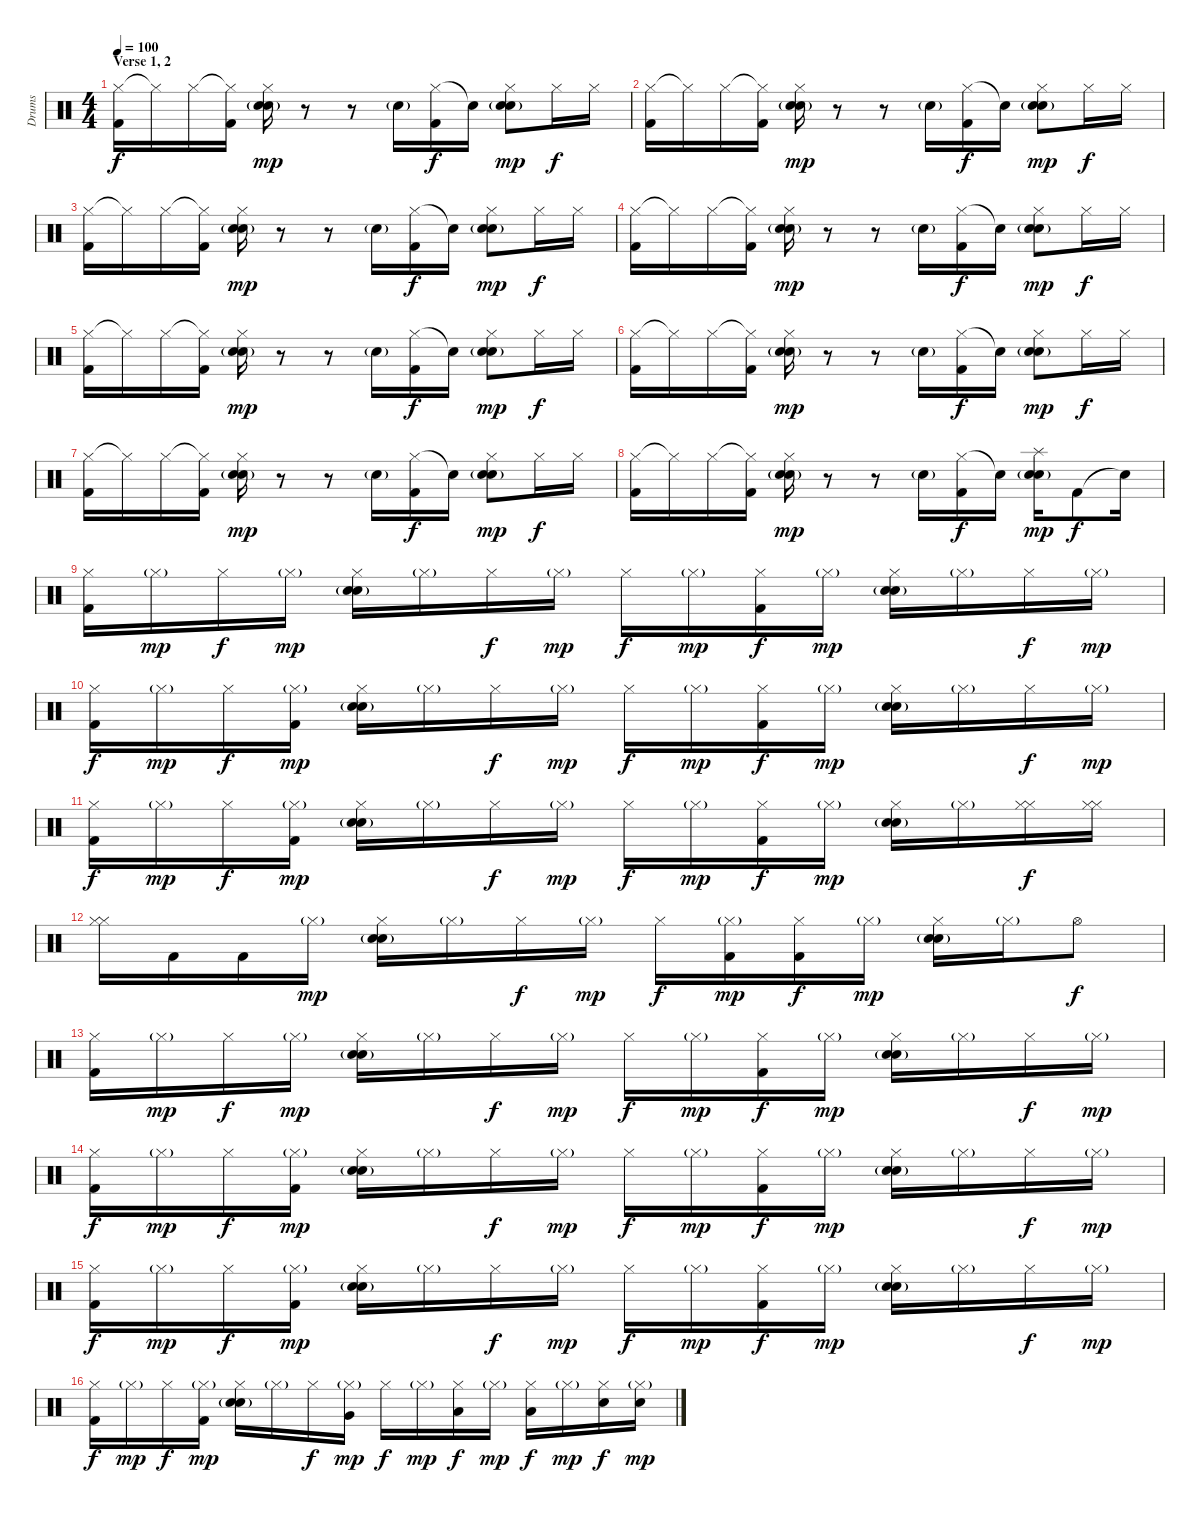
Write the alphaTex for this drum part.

\track ("Drums" "Drums") {instrument percussion}
\staff {score}
\articulation defaults
\ts (4 4)
\section ("" "Verse 1, 2")
\tempo 100
\clef neutral
\ks c
("Hi-Hat (closed)" "Kick (hit) 2").16{dy f} "Hi-Hat (closed)"{t}.16 "Hi-Hat (closed)".16 ("Hi-Hat (closed)"{t} "Kick (hit) 2").16 ("Hi-Hat (closed)" "Snare (hit) 2"{g} "Electric Snare (hit)").16{dy mp} r.8 r.8 "Electric Snare (hit)"{g}.16 ("Hi-Hat (closed)" "Kick (hit) 2").16{dy f} "Snare (hit)"{t}.16 ("Hi-Hat (closed)" "Snare (hit) 2"{g} "Electric Snare (hit)").8{dy mp} "Hi-Hat (closed)".16{dy f} "Hi-Hat (closed)".16 |
("Hi-Hat (closed)" "Kick (hit) 2").16 "Hi-Hat (closed)"{t}.16 "Hi-Hat (closed)".16 ("Hi-Hat (closed)"{t} "Kick (hit) 2").16 ("Hi-Hat (closed)" "Snare (hit) 2"{g} "Electric Snare (hit)").16{dy mp} r.8 r.8 "Electric Snare (hit)"{g}.16 ("Hi-Hat (closed)" "Kick (hit) 2").16{dy f} "Snare (hit)"{t}.16 ("Hi-Hat (closed)" "Snare (hit) 2"{g} "Electric Snare (hit)").8{dy mp} "Hi-Hat (closed)".16{dy f} "Hi-Hat (closed)".16 |
("Hi-Hat (closed)" "Kick (hit) 2").16 "Hi-Hat (closed)"{t}.16 "Hi-Hat (closed)".16 ("Hi-Hat (closed)"{t} "Kick (hit) 2").16 ("Hi-Hat (closed)" "Snare (hit) 2"{g} "Electric Snare (hit)").16{dy mp} r.8 r.8 "Electric Snare (hit)"{g}.16 ("Hi-Hat (closed)" "Kick (hit) 2").16{dy f} "Snare (hit)"{t}.16 ("Hi-Hat (closed)" "Snare (hit) 2"{g} "Electric Snare (hit)").8{dy mp} "Hi-Hat (closed)".16{dy f} "Hi-Hat (closed)".16 |
("Hi-Hat (closed)" "Kick (hit) 2").16 "Hi-Hat (closed)"{t}.16 "Hi-Hat (closed)".16 ("Hi-Hat (closed)"{t} "Kick (hit) 2").16 ("Hi-Hat (closed)" "Snare (hit) 2"{g} "Electric Snare (hit)").16{dy mp} r.8 r.8 "Electric Snare (hit)"{g}.16 ("Hi-Hat (closed)" "Kick (hit) 2").16{dy f} "Snare (hit)"{t}.16 ("Hi-Hat (closed)" "Snare (hit) 2"{g} "Electric Snare (hit)").8{dy mp} "Hi-Hat (closed)".16{dy f} "Hi-Hat (closed)".16 |
("Hi-Hat (closed)" "Kick (hit) 2").16 "Hi-Hat (closed)"{t}.16 "Hi-Hat (closed)".16 ("Hi-Hat (closed)"{t} "Kick (hit) 2").16 ("Hi-Hat (closed)" "Snare (hit) 2"{g} "Electric Snare (hit)").16{dy mp} r.8 r.8 "Electric Snare (hit)"{g}.16 ("Hi-Hat (closed)" "Kick (hit) 2").16{dy f} "Snare (hit)"{t}.16 ("Hi-Hat (closed)" "Snare (hit) 2"{g} "Electric Snare (hit)").8{dy mp} "Hi-Hat (closed)".16{dy f} "Hi-Hat (closed)".16 |
("Hi-Hat (closed)" "Kick (hit) 2").16 "Hi-Hat (closed)"{t}.16 "Hi-Hat (closed)".16 ("Hi-Hat (closed)"{t} "Kick (hit) 2").16 ("Hi-Hat (closed)" "Snare (hit) 2"{g} "Electric Snare (hit)").16{dy mp} r.8 r.8 "Electric Snare (hit)"{g}.16 ("Hi-Hat (closed)" "Kick (hit) 2").16{dy f} "Snare (hit)"{t}.16 ("Hi-Hat (closed)" "Snare (hit) 2"{g} "Electric Snare (hit)").8{dy mp} "Hi-Hat (closed)".16{dy f} "Hi-Hat (closed)".16 |
("Hi-Hat (closed)" "Kick (hit) 2").16 "Hi-Hat (closed)"{t}.16 "Hi-Hat (closed)".16 ("Hi-Hat (closed)"{t} "Kick (hit) 2").16 ("Hi-Hat (closed)" "Snare (hit) 2"{g} "Electric Snare (hit)").16{dy mp} r.8 r.8 "Electric Snare (hit)"{g}.16 ("Hi-Hat (closed)" "Kick (hit) 2").16{dy f} "Snare (hit)"{t}.16 ("Hi-Hat (closed)" "Snare (hit) 2"{g} "Electric Snare (hit)").8{dy mp} "Hi-Hat (closed)".16{dy f} "Hi-Hat (closed)".16 |
("Hi-Hat (closed)" "Kick (hit) 2").16 "Hi-Hat (closed)"{t}.16 "Hi-Hat (closed)".16 ("Hi-Hat (closed)"{t} "Kick (hit) 2").16 ("Hi-Hat (closed)" "Snare (hit) 2"{g} "Electric Snare (hit)").16{dy mp} r.8 r.8 "Electric Snare (hit)"{g}.16 ("Hi-Hat (closed)" "Kick (hit) 2").16{dy f} "Snare (hit)"{t}.16 ("Splash (hit)" "Snare (hit) 2"{g} "Electric Snare (hit)").16{dy mp} "Kick (hit) 2".8{dy f} "Snare (hit)"{t}.16 |
("Hi-Hat (closed)" "Kick (hit) 2").16 "Hi-Hat (closed)"{g}.16{dy mp} "Hi-Hat (closed)".16{dy f} "Hi-Hat (closed)"{g}.16{dy mp} ("Hi-Hat (closed)" "Snare (hit) 2"{g} "Electric Snare (hit)").16 "Hi-Hat (closed)"{g}.16 "Hi-Hat (closed)".16{dy f} "Hi-Hat (closed)"{g}.16{dy mp} "Hi-Hat (closed)".16{dy f} "Hi-Hat (closed)"{g}.16{dy mp} ("Hi-Hat (closed)" "Kick (hit) 2").16{dy f} "Hi-Hat (closed)"{g}.16{dy mp} ("Hi-Hat (closed)" "Snare (hit) 2"{g} "Electric Snare (hit)").16 "Hi-Hat (closed)"{g}.16 "Hi-Hat (closed)".16{dy f} "Hi-Hat (closed)"{g}.16{dy mp} |
("Hi-Hat (closed)" "Kick (hit) 2").16{dy f} "Hi-Hat (closed)"{g}.16{dy mp} "Hi-Hat (closed)".16{dy f} ("Hi-Hat (closed)"{g} "Kick (hit) 2").16{dy mp} ("Hi-Hat (closed)" "Snare (hit) 2"{g} "Electric Snare (hit)").16 "Hi-Hat (closed)"{g}.16 "Hi-Hat (closed)".16{dy f} "Hi-Hat (closed)"{g}.16{dy mp} "Hi-Hat (closed)".16{dy f} "Hi-Hat (closed)"{g}.16{dy mp} ("Hi-Hat (closed)" "Kick (hit) 2").16{dy f} "Hi-Hat (closed)"{g}.16{dy mp} ("Hi-Hat (closed)" "Snare (hit) 2"{g} "Electric Snare (hit)").16 "Hi-Hat (closed)"{g}.16 "Hi-Hat (closed)".16{dy f} "Hi-Hat (closed)"{g}.16{dy mp} |
("Hi-Hat (closed)" "Kick (hit) 2").16{dy f} "Hi-Hat (closed)"{g}.16{dy mp} "Hi-Hat (closed)".16{dy f} ("Hi-Hat (closed)"{g} "Kick (hit) 2").16{dy mp} ("Hi-Hat (closed)" "Snare (hit) 2"{g} "Electric Snare (hit)").16 "Hi-Hat (closed)"{g}.16 "Hi-Hat (closed)".16{dy f} "Hi-Hat (closed)"{g}.16{dy mp} "Hi-Hat (closed)".16{dy f} "Hi-Hat (closed)"{g}.16{dy mp} ("Hi-Hat (closed)" "Kick (hit) 2").16{dy f} "Hi-Hat (closed)"{g}.16{dy mp} ("Hi-Hat (closed)" "Snare (hit) 2"{g} "Electric Snare (hit)").16 "Hi-Hat (closed)"{g}.16 ("Hi-Hat (closed)" "Hi-Hat (closed)").16{dy f} ("Hi-Hat (closed)" "Hi-Hat (closed)").16 |
("Hi-Hat (closed)" "Hi-Hat (closed)").16 "Kick (hit) 2".16 "Kick (hit) 2".16 "Hi-Hat (closed)"{g}.16{dy mp} ("Hi-Hat (closed)" "Snare (hit) 2"{g} "Electric Snare (hit)").16 "Hi-Hat (closed)"{g}.16 "Hi-Hat (closed)".16{dy f} "Hi-Hat (closed)"{g}.16{dy mp} "Hi-Hat (closed)".16{dy f} ("Hi-Hat (closed)"{g} "Kick (hit) 2").16{dy mp} ("Hi-Hat (closed)" "Kick (hit) 2").16{dy f} "Hi-Hat (closed)"{g}.16{dy mp} ("Hi-Hat (closed)" "Snare (hit) 2"{g} "Electric Snare (hit)").16 "Hi-Hat (closed)"{g}.16 "Hi-Hat (open)".8{dy f} |
("Hi-Hat (closed)" "Kick (hit) 2").16 "Hi-Hat (closed)"{g}.16{dy mp} "Hi-Hat (closed)".16{dy f} "Hi-Hat (closed)"{g}.16{dy mp} ("Hi-Hat (closed)" "Snare (hit) 2"{g} "Electric Snare (hit)").16 "Hi-Hat (closed)"{g}.16 "Hi-Hat (closed)".16{dy f} "Hi-Hat (closed)"{g}.16{dy mp} "Hi-Hat (closed)".16{dy f} "Hi-Hat (closed)"{g}.16{dy mp} ("Hi-Hat (closed)" "Kick (hit) 2").16{dy f} "Hi-Hat (closed)"{g}.16{dy mp} ("Hi-Hat (closed)" "Snare (hit) 2"{g} "Electric Snare (hit)").16 "Hi-Hat (closed)"{g}.16 "Hi-Hat (closed)".16{dy f} "Hi-Hat (closed)"{g}.16{dy mp} |
("Hi-Hat (closed)" "Kick (hit) 2").16{dy f} "Hi-Hat (closed)"{g}.16{dy mp} "Hi-Hat (closed)".16{dy f} ("Hi-Hat (closed)"{g} "Kick (hit) 2").16{dy mp} ("Hi-Hat (closed)" "Snare (hit) 2"{g} "Electric Snare (hit)").16 "Hi-Hat (closed)"{g}.16 "Hi-Hat (closed)".16{dy f} "Hi-Hat (closed)"{g}.16{dy mp} "Hi-Hat (closed)".16{dy f} "Hi-Hat (closed)"{g}.16{dy mp} ("Hi-Hat (closed)" "Kick (hit) 2").16{dy f} "Hi-Hat (closed)"{g}.16{dy mp} ("Hi-Hat (closed)" "Snare (hit) 2"{g} "Electric Snare (hit)").16 "Hi-Hat (closed)"{g}.16 "Hi-Hat (closed)".16{dy f} "Hi-Hat (closed)"{g}.16{dy mp} |
("Hi-Hat (closed)" "Kick (hit) 2").16{dy f} "Hi-Hat (closed)"{g}.16{dy mp} "Hi-Hat (closed)".16{dy f} ("Hi-Hat (closed)"{g} "Kick (hit) 2").16{dy mp} ("Hi-Hat (closed)" "Snare (hit) 2"{g} "Electric Snare (hit)").16 "Hi-Hat (closed)"{g}.16 "Hi-Hat (closed)".16{dy f} "Hi-Hat (closed)"{g}.16{dy mp} "Hi-Hat (closed)".16{dy f} "Hi-Hat (closed)"{g}.16{dy mp} ("Hi-Hat (closed)" "Kick (hit) 2").16{dy f} "Hi-Hat (closed)"{g}.16{dy mp} ("Hi-Hat (closed)" "Snare (hit) 2"{g} "Electric Snare (hit)").16 "Hi-Hat (closed)"{g}.16 "Hi-Hat (closed)".16{dy f} "Hi-Hat (closed)"{g}.16{dy mp} |
("Hi-Hat (closed)" "Kick (hit) 2").16{dy f} "Hi-Hat (closed)"{g}.16{dy mp} "Hi-Hat (closed)".16{dy f} ("Hi-Hat (closed)"{g} "Kick (hit) 2").16{dy mp} ("Hi-Hat (closed)" "Snare (hit) 2"{g} "Electric Snare (hit)").16 "Hi-Hat (closed)"{g}.16 "Hi-Hat (closed)".16{dy f} ("Hi-Hat (closed)"{g} "Very Low Tom (hit)").16{dy mp} "Hi-Hat (closed)".16{dy f} "Hi-Hat (closed)"{g}.16{dy mp} ("Hi-Hat (closed)" "Low Floor Tom (hit)").16{dy f} "Hi-Hat (closed)"{g}.16{dy mp} ("Hi-Hat (closed)" "Low Tom (hit)").16{dy f} "Hi-Hat (closed)"{g}.16{dy mp} ("Hi-Hat (closed)" "Electric Snare (hit)").16{dy f} ("Hi-Hat (closed)"{g} "Electric Snare (hit)").16{dy mp}
